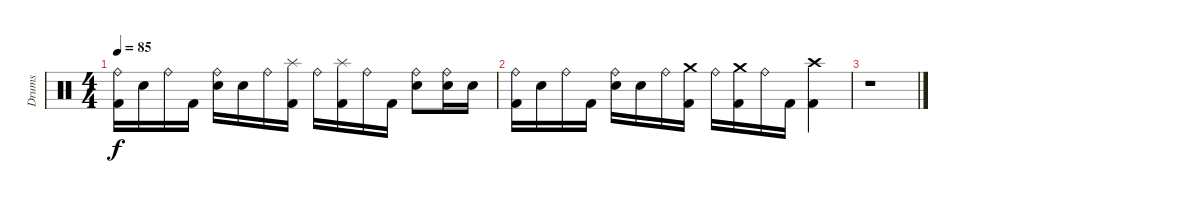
\track ("Drums" "Drums") {instrument percussion}
\staff {score}
\articulation defaults
\ts (4 4)
\tempo 85
\clef neutral
\ks c
("Ride (bell)" "Kick (hit) 2").16{dy f} "Electric Snare (hit)".16 "Ride (bell)".16 "Kick (hit) 2".16 ("Ride (bell)" "Electric Snare (hit)").16 "Electric Snare (hit)".16 "Ride (bell)".16 ("Splash (hit)" "Kick (hit) 2").16 "Ride (bell)".16 ("Splash (hit)" "Kick (hit) 2").16 "Ride (bell)".16 "Kick (hit) 2".16 ("Ride (bell)" "Electric Snare (hit)").8 ("Ride (bell)" "Electric Snare (hit)").16 "Electric Snare (hit)".16 |
("Ride (bell)" "Kick (hit) 2").16 "Electric Snare (hit)".16 "Ride (bell)".16 "Kick (hit) 2".16 ("Ride (bell)" "Electric Snare (hit)").16 "Electric Snare (hit)".16 "Ride (bell)".16 ("Crash medium (hit)" "Kick (hit) 2").16 "Ride (bell)".16 ("Crash medium (hit)" "Kick (hit) 2").16 "Ride (bell)".16 "Kick (hit) 2".16 ("Crash high (hit)" "Kick (hit) 2").4 |
r.1
